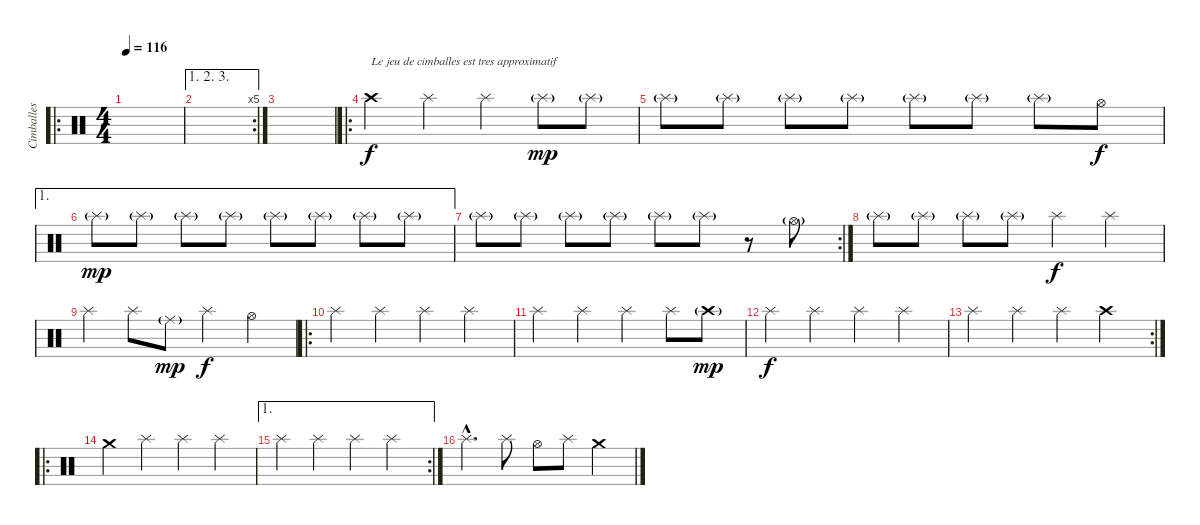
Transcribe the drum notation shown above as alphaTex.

\track ("Cimballes" "Cimballes") {instrument percussion}
\staff {score}
\articulation defaults
\ro
\ts (4 4)
\tempo 116
\clef neutral
\ks c
|
\ae (1 2 3)
\rc 5
|
|
\ro "Crash high (hit)".4{txt "Le jeu de cimballes est tres approximatif"} "Splash (hit)".4 "Splash (hit)".4 "Splash (hit)"{g}.8{dy mp} "Splash (hit)"{g}.8
|
"Splash (hit)"{g}.8 "Splash (hit)"{g}.8 "Splash (hit)"{g}.8 "Splash (hit)"{g}.8 "Splash (hit)"{g}.8 "Splash (hit)"{g}.8 "Splash (hit)"{g}.8 "Hi-Hat (open)".8{dy f} |
\ae 1 "Splash (hit)"{g}.8{dy mp} "Splash (hit)"{g}.8 "Splash (hit)"{g}.8 "Splash (hit)"{g}.8 "Splash (hit)"{g}.8 "Splash (hit)"{g}.8 "Splash (hit)"{g}.8 "Splash (hit)"{g}.8
|
\rc 2 "Splash (hit)"{g}.8 "Splash (hit)"{g}.8 "Splash (hit)"{g}.8 "Splash (hit)"{g}.8 "Splash (hit)"{g}.8 "Splash (hit)"{g}.8
r.8 "Hi-Hat (open)"{g}.8 |
"Splash (hit)"{g}.8 "Splash (hit)"{g}.8 "Splash (hit)"{g}.8 "Splash (hit)"{g}.8 "Splash (hit)".4{dy f} "Splash (hit)".4 |
"Splash (hit)".4 "Splash (hit)".8 "Ride (middle)"{g}.8{dy mp} "Splash (hit)".4{dy f} "Hi-Hat (open)".4 |
\ro "Splash (hit)".4 "Splash (hit)".4 "Splash (hit)".4 "Splash (hit)".4
|
"Splash (hit)".4 "Splash (hit)".4 "Splash (hit)".4 "Splash (hit)".8 "Crash high (hit)"{g}.8{dy mp} |
"Splash (hit)".4{dy f} "Splash (hit)".4 "Splash (hit)".4 "Splash (hit)".4 |
\rc 2 "Splash (hit)".4 "Splash (hit)".4 "Splash (hit)".4 "Crash high (hit)".4
|
\ro "Crash medium (hit)".4 "Splash (hit)".4 "Splash (hit)".4 "Splash (hit)".4
|
\ae 1
\rc 2 "Splash (hit)".4 "Splash (hit)".4 "Splash (hit)".4 "Splash (hit)".4
|
"Splash (hit)"{hac}.4{d} "Splash (hit)".8 "Hi-Hat (open)".8 "Splash (hit)".8 "Crash medium (hit)".4
